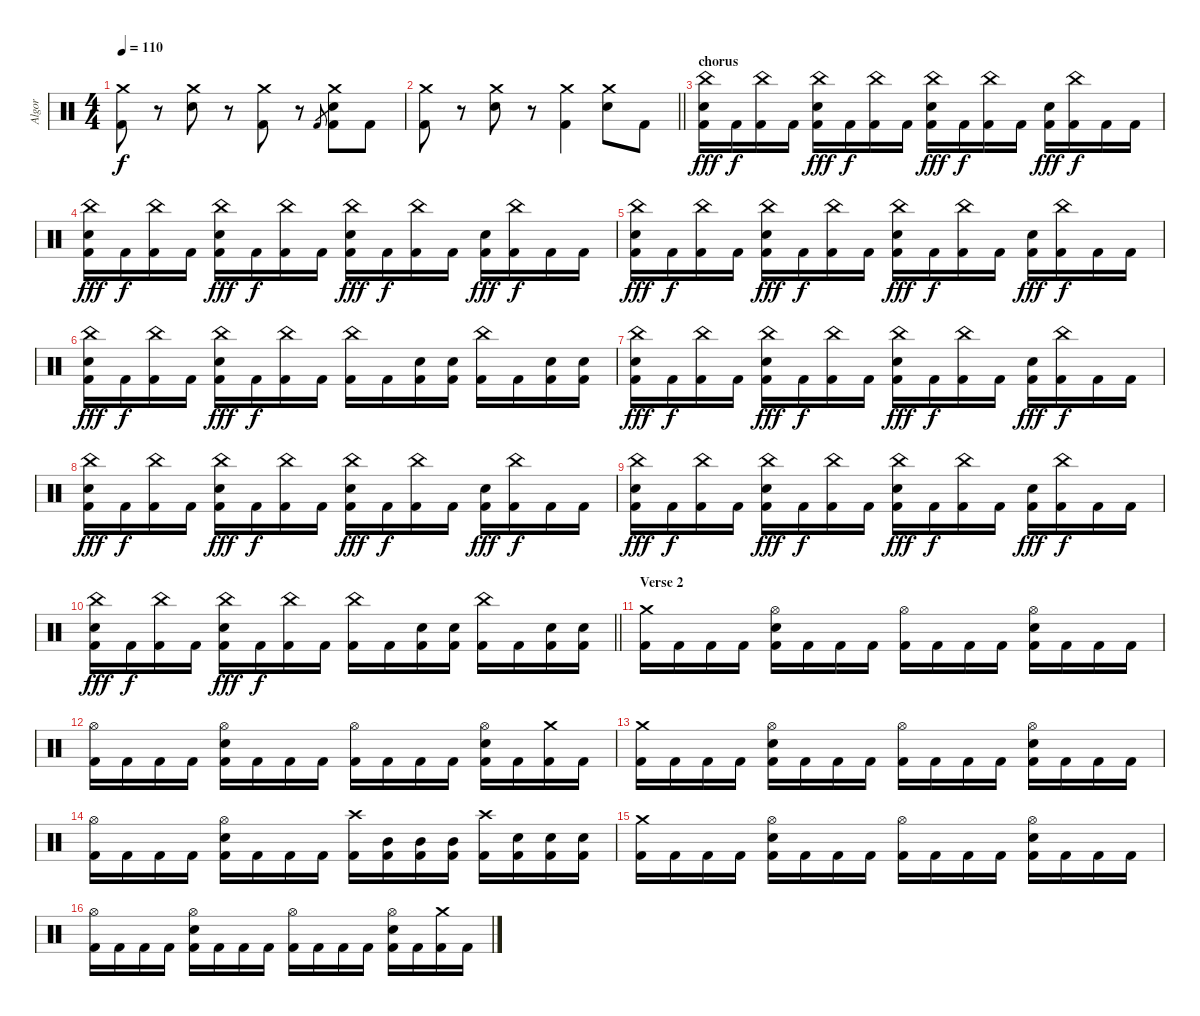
\track ("Algor" "Algor") {instrument percussion}
\staff {score}
\articulation defaults
\ts (4 4)
\tempo 110
\clef neutral
\ks c
("Crash medium (hit)" "Kick (hit) 2").8{dy f} r.8 ("Crash medium (hit)" "Snare (hit) 2").8 r.8 ("Crash medium (hit)" "Kick (hit) 2").8 r.8 "Kick (hit) 2".8{gr} ("Crash medium (hit)" "Snare (hit) 2" "Kick (hit) 2").8 "Kick (hit) 2".8 |
\barLineRight lightlight
("Crash medium (hit)" "Kick (hit) 2").8 r.8 ("Crash medium (hit)" "Snare (hit) 2").8 r.8 ("Crash medium (hit)" "Kick (hit) 2").4 ("Crash medium (hit)" "Snare (hit) 2").8 "Kick (hit) 2".8 |
\section ("" "chorus")
("China (hit)" "Snare (hit) 2" "Kick (hit) 2").16{dy fff} "Kick (hit) 2".16{dy f} ("China (hit)" "Kick (hit) 2").16 "Kick (hit) 2".16 ("China (hit)" "Snare (hit) 2" "Kick (hit) 2").16{dy fff} "Kick (hit) 2".16{dy f} ("China (hit)" "Kick (hit) 2").16 "Kick (hit) 2".16 ("China (hit)" "Snare (hit) 2" "Kick (hit) 2").16{dy fff} "Kick (hit) 2".16{dy f} ("China (hit)" "Kick (hit) 2").16 "Kick (hit) 2".16 ("Snare (hit) 2" "Kick (hit) 2").16{dy fff} ("China (hit)" "Kick (hit) 2").16{dy f} "Kick (hit) 2".16 "Kick (hit) 2".16 |
("China (hit)" "Snare (hit) 2" "Kick (hit) 2").16{dy fff} "Kick (hit) 2".16{dy f} ("China (hit)" "Kick (hit) 2").16 "Kick (hit) 2".16 ("China (hit)" "Snare (hit) 2" "Kick (hit) 2").16{dy fff} "Kick (hit) 2".16{dy f} ("China (hit)" "Kick (hit) 2").16 "Kick (hit) 2".16 ("China (hit)" "Snare (hit) 2" "Kick (hit) 2").16{dy fff} "Kick (hit) 2".16{dy f} ("China (hit)" "Kick (hit) 2").16 "Kick (hit) 2".16 ("Snare (hit) 2" "Kick (hit) 2").16{dy fff} ("China (hit)" "Kick (hit) 2").16{dy f} "Kick (hit) 2".16 "Kick (hit) 2".16 |
("China (hit)" "Snare (hit) 2" "Kick (hit) 2").16{dy fff} "Kick (hit) 2".16{dy f} ("China (hit)" "Kick (hit) 2").16 "Kick (hit) 2".16 ("China (hit)" "Snare (hit) 2" "Kick (hit) 2").16{dy fff} "Kick (hit) 2".16{dy f} ("China (hit)" "Kick (hit) 2").16 "Kick (hit) 2".16 ("China (hit)" "Snare (hit) 2" "Kick (hit) 2").16{dy fff} "Kick (hit) 2".16{dy f} ("China (hit)" "Kick (hit) 2").16 "Kick (hit) 2".16 ("Snare (hit) 2" "Kick (hit) 2").16{dy fff} ("China (hit)" "Kick (hit) 2").16{dy f} "Kick (hit) 2".16 "Kick (hit) 2".16 |
("China (hit)" "Snare (hit) 2" "Kick (hit) 2").16{dy fff} "Kick (hit) 2".16{dy f} ("China (hit)" "Kick (hit) 2").16 "Kick (hit) 2".16 ("China (hit)" "Snare (hit) 2" "Kick (hit) 2").16{dy fff} "Kick (hit) 2".16{dy f} ("China (hit)" "Kick (hit) 2").16 "Kick (hit) 2".16 ("China (hit)" "Kick (hit) 2").16 "Kick (hit) 2".16 ("Snare (hit) 2" "Kick (hit) 2").16 ("Snare (hit) 2" "Kick (hit) 2").16 ("China (hit)" "Kick (hit) 2").16 "Kick (hit) 2".16 ("Snare (hit) 2" "Kick (hit) 2").16 ("Snare (hit) 2" "Kick (hit) 2").16 |
("China (hit)" "Snare (hit) 2" "Kick (hit) 2").16{dy fff} "Kick (hit) 2".16{dy f} ("China (hit)" "Kick (hit) 2").16 "Kick (hit) 2".16 ("China (hit)" "Snare (hit) 2" "Kick (hit) 2").16{dy fff} "Kick (hit) 2".16{dy f} ("China (hit)" "Kick (hit) 2").16 "Kick (hit) 2".16 ("China (hit)" "Snare (hit) 2" "Kick (hit) 2").16{dy fff} "Kick (hit) 2".16{dy f} ("China (hit)" "Kick (hit) 2").16 "Kick (hit) 2".16 ("Snare (hit) 2" "Kick (hit) 2").16{dy fff} ("China (hit)" "Kick (hit) 2").16{dy f} "Kick (hit) 2".16 "Kick (hit) 2".16 |
("China (hit)" "Snare (hit) 2" "Kick (hit) 2").16{dy fff} "Kick (hit) 2".16{dy f} ("China (hit)" "Kick (hit) 2").16 "Kick (hit) 2".16 ("China (hit)" "Snare (hit) 2" "Kick (hit) 2").16{dy fff} "Kick (hit) 2".16{dy f} ("China (hit)" "Kick (hit) 2").16 "Kick (hit) 2".16 ("China (hit)" "Snare (hit) 2" "Kick (hit) 2").16{dy fff} "Kick (hit) 2".16{dy f} ("China (hit)" "Kick (hit) 2").16 "Kick (hit) 2".16 ("Snare (hit) 2" "Kick (hit) 2").16{dy fff} ("China (hit)" "Kick (hit) 2").16{dy f} "Kick (hit) 2".16 "Kick (hit) 2".16 |
("China (hit)" "Snare (hit) 2" "Kick (hit) 2").16{dy fff} "Kick (hit) 2".16{dy f} ("China (hit)" "Kick (hit) 2").16 "Kick (hit) 2".16 ("China (hit)" "Snare (hit) 2" "Kick (hit) 2").16{dy fff} "Kick (hit) 2".16{dy f} ("China (hit)" "Kick (hit) 2").16 "Kick (hit) 2".16 ("China (hit)" "Snare (hit) 2" "Kick (hit) 2").16{dy fff} "Kick (hit) 2".16{dy f} ("China (hit)" "Kick (hit) 2").16 "Kick (hit) 2".16 ("Snare (hit) 2" "Kick (hit) 2").16{dy fff} ("China (hit)" "Kick (hit) 2").16{dy f} "Kick (hit) 2".16 "Kick (hit) 2".16 |
\barLineRight lightlight
("China (hit)" "Snare (hit) 2" "Kick (hit) 2").16{dy fff} "Kick (hit) 2".16{dy f} ("China (hit)" "Kick (hit) 2").16 "Kick (hit) 2".16 ("China (hit)" "Snare (hit) 2" "Kick (hit) 2").16{dy fff} "Kick (hit) 2".16{dy f} ("China (hit)" "Kick (hit) 2").16 "Kick (hit) 2".16 ("China (hit)" "Kick (hit) 2").16 "Kick (hit) 2".16 ("Snare (hit) 2" "Kick (hit) 2").16 ("Snare (hit) 2" "Kick (hit) 2").16 ("China (hit)" "Kick (hit) 2").16 "Kick (hit) 2".16 ("Snare (hit) 2" "Kick (hit) 2").16 ("Snare (hit) 2" "Kick (hit) 2").16 |
\section ("" "Verse 2")
("Crash medium (hit)" "Kick (hit) 2").16 "Kick (hit) 2".16 "Kick (hit) 2".16 "Kick (hit) 2".16 ("Hi-Hat (open)" "Snare (hit) 2" "Kick (hit) 2").16 "Kick (hit) 2".16 "Kick (hit) 2".16 "Kick (hit) 2".16 ("Hi-Hat (open)" "Kick (hit) 2").16 "Kick (hit) 2".16 "Kick (hit) 2".16 "Kick (hit) 2".16 ("Hi-Hat (open)" "Snare (hit) 2" "Kick (hit) 2").16 "Kick (hit) 2".16 "Kick (hit) 2".16 "Kick (hit) 2".16 |
("Hi-Hat (open)" "Kick (hit) 2").16 "Kick (hit) 2".16 "Kick (hit) 2".16 "Kick (hit) 2".16 ("Hi-Hat (open)" "Snare (hit) 2" "Kick (hit) 2").16 "Kick (hit) 2".16 "Kick (hit) 2".16 "Kick (hit) 2".16 ("Hi-Hat (open)" "Kick (hit) 2").16 "Kick (hit) 2".16 "Kick (hit) 2".16 "Kick (hit) 2".16 ("Hi-Hat (open)" "Snare (hit) 2" "Kick (hit) 2").16 "Kick (hit) 2".16 ("Crash medium (hit)" "Kick (hit) 2").16 "Kick (hit) 2".16 |
("Crash medium (hit)" "Kick (hit) 2").16 "Kick (hit) 2".16 "Kick (hit) 2".16 "Kick (hit) 2".16 ("Hi-Hat (open)" "Snare (hit) 2" "Kick (hit) 2").16 "Kick (hit) 2".16 "Kick (hit) 2".16 "Kick (hit) 2".16 ("Hi-Hat (open)" "Kick (hit) 2").16 "Kick (hit) 2".16 "Kick (hit) 2".16 "Kick (hit) 2".16 ("Hi-Hat (open)" "Snare (hit) 2" "Kick (hit) 2").16 "Kick (hit) 2".16 "Kick (hit) 2".16 "Kick (hit) 2".16 |
("Hi-Hat (open)" "Kick (hit) 2").16 "Kick (hit) 2".16 "Kick (hit) 2".16 "Kick (hit) 2".16 ("Hi-Hat (open)" "Snare (hit) 2" "Kick (hit) 2").16 "Kick (hit) 2".16 "Kick (hit) 2".16 "Kick (hit) 2".16 ("Crash high (hit)" "Kick (hit) 2").16 ("Mid Tom (hit)" "Kick (hit) 2").16 ("Mid Tom (hit)" "Kick (hit) 2").16 ("Mid Tom (hit)" "Kick (hit) 2").16 ("Crash high (hit)" "Kick (hit) 2").16 ("Snare (hit) 2" "Kick (hit) 2").16 ("Snare (hit) 2" "Kick (hit) 2").16 ("Snare (hit) 2" "Kick (hit) 2").16 |
("Crash medium (hit)" "Kick (hit) 2").16 "Kick (hit) 2".16 "Kick (hit) 2".16 "Kick (hit) 2".16 ("Hi-Hat (open)" "Snare (hit) 2" "Kick (hit) 2").16 "Kick (hit) 2".16 "Kick (hit) 2".16 "Kick (hit) 2".16 ("Hi-Hat (open)" "Kick (hit) 2").16 "Kick (hit) 2".16 "Kick (hit) 2".16 "Kick (hit) 2".16 ("Hi-Hat (open)" "Snare (hit) 2" "Kick (hit) 2").16 "Kick (hit) 2".16 "Kick (hit) 2".16 "Kick (hit) 2".16 |
("Hi-Hat (open)" "Kick (hit) 2").16 "Kick (hit) 2".16 "Kick (hit) 2".16 "Kick (hit) 2".16 ("Hi-Hat (open)" "Snare (hit) 2" "Kick (hit) 2").16 "Kick (hit) 2".16 "Kick (hit) 2".16 "Kick (hit) 2".16 ("Hi-Hat (open)" "Kick (hit) 2").16 "Kick (hit) 2".16 "Kick (hit) 2".16 "Kick (hit) 2".16 ("Hi-Hat (open)" "Snare (hit) 2" "Kick (hit) 2").16 "Kick (hit) 2".16 ("Crash medium (hit)" "Kick (hit) 2").16 "Kick (hit) 2".16
